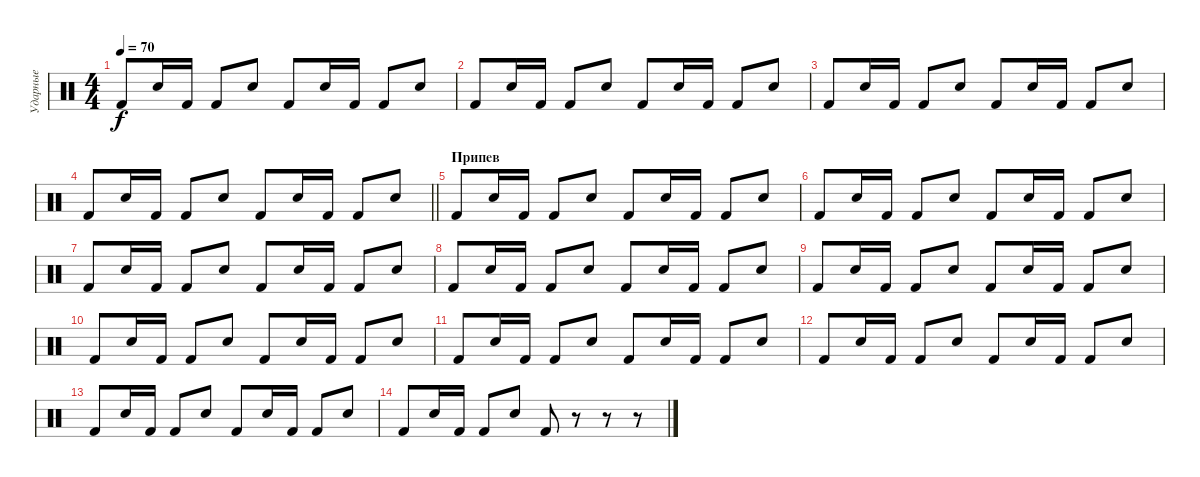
\track ("Ударные" "Ударные") {instrument percussion}
\staff {score}
\articulation defaults
\ts (4 4)
\tempo 70
\clef neutral
\ks c "Kick (hit) 2".8{dy f} "Electric Snare (hit)".16 "Kick (hit) 2".16 "Kick (hit) 2".8 "Electric Snare (hit)".8 "Kick (hit) 2".8 "Electric Snare (hit)".16 "Kick (hit) 2".16 "Kick (hit) 2".8 "Electric Snare (hit)".8
|
"Kick (hit) 2".8 "Electric Snare (hit)".16 "Kick (hit) 2".16 "Kick (hit) 2".8 "Electric Snare (hit)".8 "Kick (hit) 2".8 "Electric Snare (hit)".16 "Kick (hit) 2".16 "Kick (hit) 2".8 "Electric Snare (hit)".8 |
"Kick (hit) 2".8 "Electric Snare (hit)".16 "Kick (hit) 2".16 "Kick (hit) 2".8 "Electric Snare (hit)".8 "Kick (hit) 2".8 "Electric Snare (hit)".16 "Kick (hit) 2".16 "Kick (hit) 2".8 "Electric Snare (hit)".8 |
\barLineRight lightlight "Kick (hit) 2".8 "Electric Snare (hit)".16 "Kick (hit) 2".16 "Kick (hit) 2".8 "Electric Snare (hit)".8 "Kick (hit) 2".8 "Electric Snare (hit)".16 "Kick (hit) 2".16 "Kick (hit) 2".8 "Electric Snare (hit)".8
|
\section ("" "Припев")
"Kick (hit) 2".8 "Electric Snare (hit)".16 "Kick (hit) 2".16 "Kick (hit) 2".8 "Electric Snare (hit)".8 "Kick (hit) 2".8 "Electric Snare (hit)".16 "Kick (hit) 2".16 "Kick (hit) 2".8 "Electric Snare (hit)".8 |
"Kick (hit) 2".8 "Electric Snare (hit)".16 "Kick (hit) 2".16 "Kick (hit) 2".8 "Electric Snare (hit)".8 "Kick (hit) 2".8 "Electric Snare (hit)".16 "Kick (hit) 2".16 "Kick (hit) 2".8 "Electric Snare (hit)".8 |
"Kick (hit) 2".8 "Electric Snare (hit)".16 "Kick (hit) 2".16 "Kick (hit) 2".8 "Electric Snare (hit)".8 "Kick (hit) 2".8 "Electric Snare (hit)".16 "Kick (hit) 2".16 "Kick (hit) 2".8 "Electric Snare (hit)".8 |
"Kick (hit) 2".8 "Electric Snare (hit)".16 "Kick (hit) 2".16 "Kick (hit) 2".8 "Electric Snare (hit)".8 "Kick (hit) 2".8 "Electric Snare (hit)".16 "Kick (hit) 2".16 "Kick (hit) 2".8 "Electric Snare (hit)".8 |
"Kick (hit) 2".8 "Electric Snare (hit)".16 "Kick (hit) 2".16 "Kick (hit) 2".8 "Electric Snare (hit)".8 "Kick (hit) 2".8 "Electric Snare (hit)".16 "Kick (hit) 2".16 "Kick (hit) 2".8 "Electric Snare (hit)".8 |
"Kick (hit) 2".8 "Electric Snare (hit)".16 "Kick (hit) 2".16 "Kick (hit) 2".8 "Electric Snare (hit)".8 "Kick (hit) 2".8 "Electric Snare (hit)".16 "Kick (hit) 2".16 "Kick (hit) 2".8 "Electric Snare (hit)".8 |
"Kick (hit) 2".8 "Electric Snare (hit)".16 "Kick (hit) 2".16 "Kick (hit) 2".8 "Electric Snare (hit)".8 "Kick (hit) 2".8 "Electric Snare (hit)".16 "Kick (hit) 2".16 "Kick (hit) 2".8 "Electric Snare (hit)".8 |
"Kick (hit) 2".8 "Electric Snare (hit)".16 "Kick (hit) 2".16 "Kick (hit) 2".8 "Electric Snare (hit)".8 "Kick (hit) 2".8 "Electric Snare (hit)".16 "Kick (hit) 2".16 "Kick (hit) 2".8 "Electric Snare (hit)".8 |
"Kick (hit) 2".8 "Electric Snare (hit)".16 "Kick (hit) 2".16 "Kick (hit) 2".8 "Electric Snare (hit)".8 "Kick (hit) 2".8 "Electric Snare (hit)".16 "Kick (hit) 2".16 "Kick (hit) 2".8 "Electric Snare (hit)".8 |
"Kick (hit) 2".8 "Electric Snare (hit)".16 "Kick (hit) 2".16 "Kick (hit) 2".8 "Electric Snare (hit)".8 "Kick (hit) 2".8 r.8 r.8 r.8
